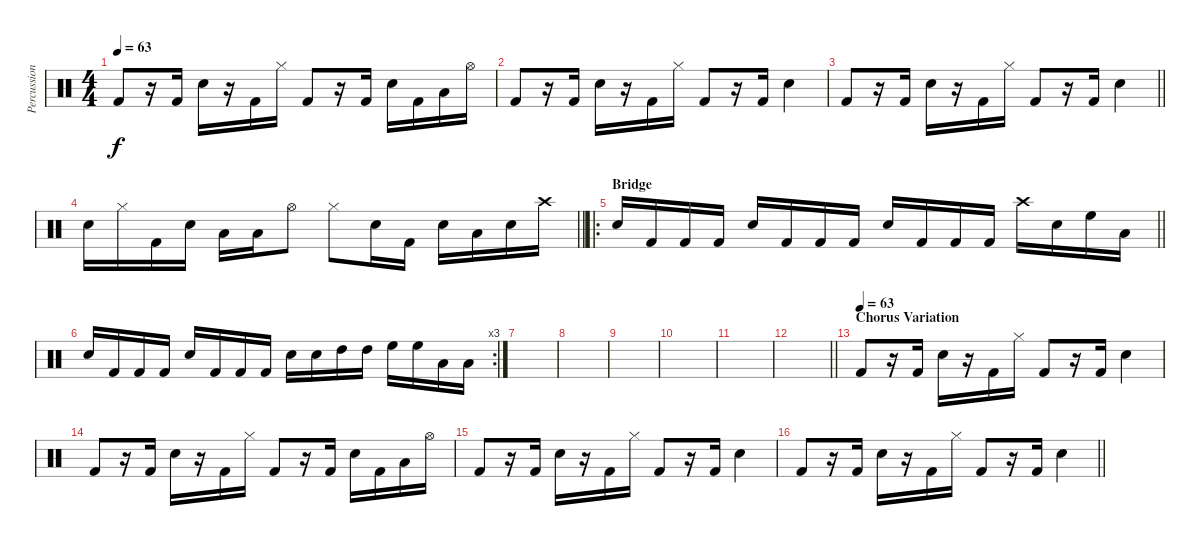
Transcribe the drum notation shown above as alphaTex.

\track ("Percussion" "Percussion") {instrument percussion}
\staff {score}
\articulation defaults
\ts (4 4)
\tempo 63
\clef neutral
\ks c "Kick (hit) 2".8{dy f}
r.16 "Kick (hit) 2".16 "Snare (hit) 2".16 r.16 "Kick (hit) 2".16 "Hi-Hat (closed)".16 "Kick (hit) 2".8 r.16 "Kick (hit) 2".16 "Snare (hit) 2".16 "Kick (hit) 2".16 "Low Tom (hit)".16 "Hi-Hat (open)".16 |
"Kick (hit) 2".8 r.16 "Kick (hit) 2".16 "Snare (hit) 2".16 r.16 "Kick (hit) 2".16 "Hi-Hat (closed)".16 "Kick (hit) 2".8 r.16 "Kick (hit) 2".16 "Snare (hit) 2".4 |
\barLineRight lightlight "Kick (hit) 2".8
r.16 "Kick (hit) 2".16 "Snare (hit) 2".16 r.16 "Kick (hit) 2".16 "Hi-Hat (closed)".16 "Kick (hit) 2".8 r.16 "Kick (hit) 2".16 "Snare (hit) 2".4 |
\barLineRight lightlight "Snare (hit) 2".16 "Hi-Hat (closed)".16 "Kick (hit) 2".16 "Snare (hit) 2".16 "Low Tom (hit)".16 "Low Tom (hit)".16 "Hi-Hat (open)".8 "Hi-Hat (closed)".8 "Snare (hit) 2".16 "Kick (hit) 2".16 "Snare (hit) 2".16 "Low Tom (hit)".16 "Snare (hit) 2".16 "Crash high (hit)".16
|
\ro
\section ("" "Bridge")
\barLineRight lightlight "Snare (hit) 2".16 "Kick (hit) 2".16 "Kick (hit) 2".16 "Kick (hit) 2".16 "Snare (hit) 2".16 "Kick (hit) 2".16 "Kick (hit) 2".16 "Kick (hit) 2".16 "Snare (hit) 2".16 "Kick (hit) 2".16 "Kick (hit) 2".16 "Kick (hit) 2".16 "Crash high (hit)".16 "Snare (hit) 2".16 "High Floor Tom (hit)".16 "Low Tom (hit)".16
|
\rc 3 "Snare (hit) 2".16 "Kick (hit) 2".16 "Kick (hit) 2".16 "Kick (hit) 2".16 "Snare (hit) 2".16 "Kick (hit) 2".16 "Kick (hit) 2".16 "Kick (hit) 2".16 "Snare (hit) 2".16 "Snare (hit) 2".16 "High Tom (hit)".16 "High Tom (hit)".16 "High Floor Tom (hit)".16 "High Floor Tom (hit)".16 "Low Tom (hit)".16 "Low Tom (hit)".16
|
|
|
|
|
|
\barLineRight lightlight
|
\section ("" "Chorus Variation")
\tempo (63)
"Kick (hit) 2".8 r.16 "Kick (hit) 2".16 "Snare (hit) 2".16 r.16 "Kick (hit) 2".16 "Hi-Hat (closed)".16 "Kick (hit) 2".8 r.16 "Kick (hit) 2".16 "Snare (hit) 2".4 |
"Kick (hit) 2".8 r.16 "Kick (hit) 2".16 "Snare (hit) 2".16 r.16 "Kick (hit) 2".16 "Hi-Hat (closed)".16 "Kick (hit) 2".8 r.16 "Kick (hit) 2".16 "Snare (hit) 2".16 "Kick (hit) 2".16 "Low Tom (hit)".16 "Hi-Hat (open)".16 |
"Kick (hit) 2".8 r.16 "Kick (hit) 2".16 "Snare (hit) 2".16 r.16 "Kick (hit) 2".16 "Hi-Hat (closed)".16 "Kick (hit) 2".8 r.16 "Kick (hit) 2".16 "Snare (hit) 2".4 |
\barLineRight lightlight "Kick (hit) 2".8
r.16 "Kick (hit) 2".16 "Snare (hit) 2".16 r.16 "Kick (hit) 2".16 "Hi-Hat (closed)".16 "Kick (hit) 2".8 r.16 "Kick (hit) 2".16 "Snare (hit) 2".4
